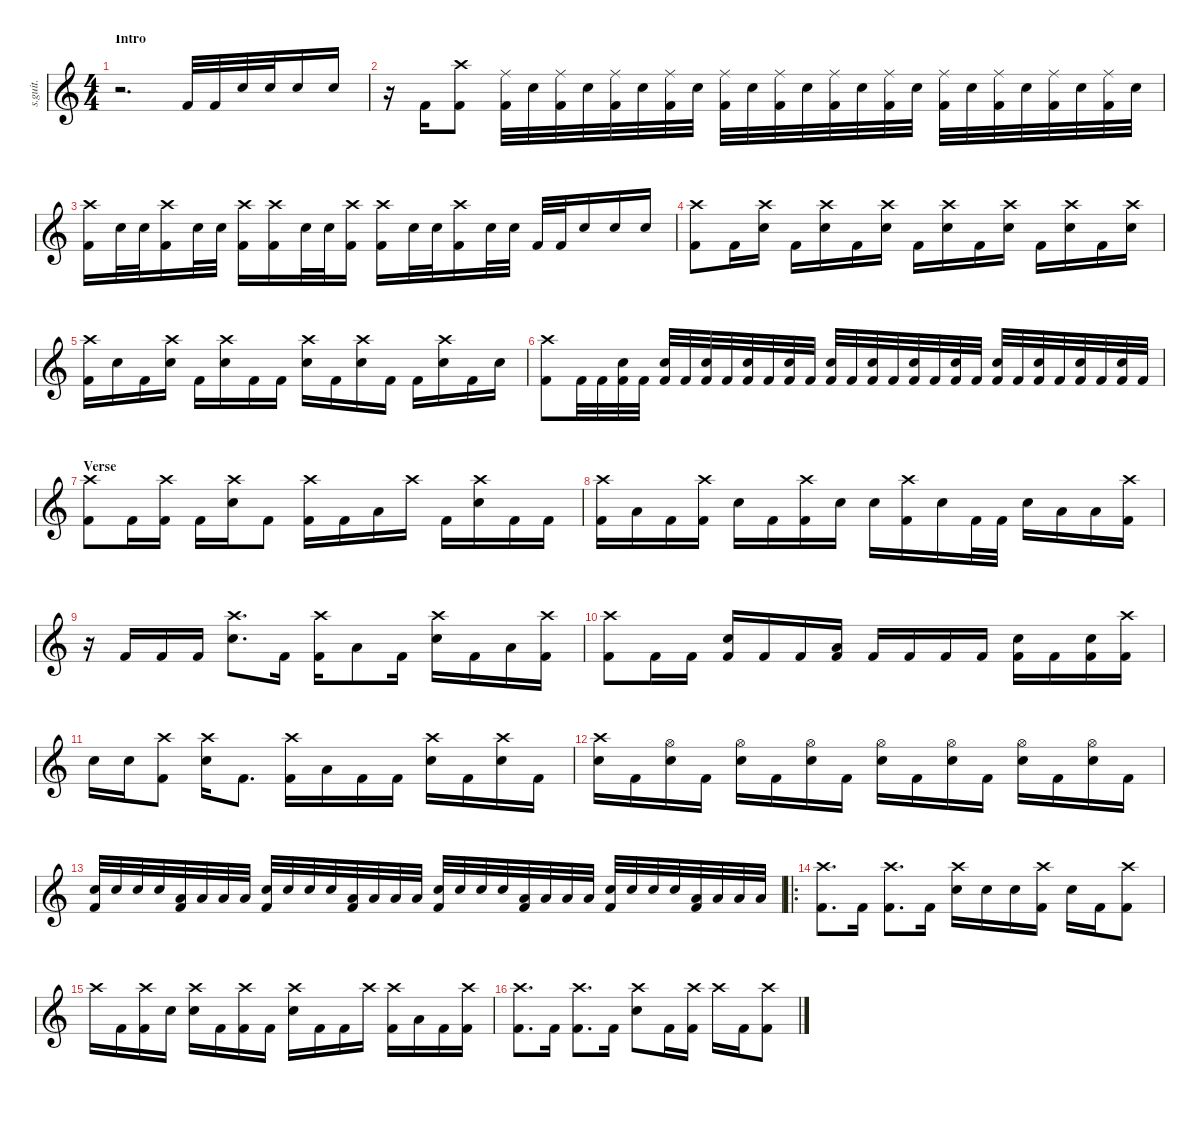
\defaultSystemsLayout 4
\hideDynamics
\bracketExtendMode nobrackets
\track ("" "s.guit.") {instrument percussion}
\staff {score}
\articulation defaults
\ts (4 4)
\beaming (8 2 2 2 2)
\section ("" "Intro")
\tempo (116 hide)
\clef g2
\ks c
r.2{d dy f} "Kick (hit) 2".32{lyrics (0 "") lyrics (1 "") lyrics (2 "") lyrics (3 "") lyrics (4 "")} "Kick (hit) 2".32{lyrics (0 "") lyrics (1 "") lyrics (2 "") lyrics (3 "") lyrics (4 "")} "Snare (hit) 2".32{lyrics (0 "") lyrics (1 "") lyrics (2 "") lyrics (3 "") lyrics (4 "")} "Snare (hit) 2".32{lyrics (0 "") lyrics (1 "") lyrics (2 "") lyrics (3 "") lyrics (4 "")} "Snare (hit) 2".16{lyrics (0 "") lyrics (1 "") lyrics (2 "") lyrics (3 "") lyrics (4 "")} "Snare (hit) 2".16{lyrics (0 "") lyrics (1 "") lyrics (2 "") lyrics (3 "") lyrics (4 "")} |
r.16 "Kick (hit) 2".16{lyrics (0 "") lyrics (1 "") lyrics (2 "") lyrics (3 "") lyrics (4 "")} ("Kick (hit) 2" "Crash high (hit)").8{lyrics (0 "") lyrics (1 "") lyrics (2 "") lyrics (3 "") lyrics (4 "")} ("Kick (hit) 2" "Ride (middle)").32{lyrics (0 "") lyrics (1 "") lyrics (2 "") lyrics (3 "") lyrics (4 "")} "Snare (hit) 2".32{lyrics (0 "") lyrics (1 "") lyrics (2 "") lyrics (3 "") lyrics (4 "")} ("Kick (hit) 2" "Ride (middle)").32{lyrics (0 "") lyrics (1 "") lyrics (2 "") lyrics (3 "") lyrics (4 "")} "Snare (hit) 2".32{lyrics (0 "") lyrics (1 "") lyrics (2 "") lyrics (3 "") lyrics (4 "")} ("Kick (hit) 2" "Ride (middle)").32{lyrics (0 "") lyrics (1 "") lyrics (2 "") lyrics (3 "") lyrics (4 "")} "Snare (hit) 2".32{lyrics (0 "") lyrics (1 "") lyrics (2 "") lyrics (3 "") lyrics (4 "")} ("Kick (hit) 2" "Ride (middle)").32{lyrics (0 "") lyrics (1 "") lyrics (2 "") lyrics (3 "") lyrics (4 "")} "Snare (hit) 2".32{lyrics (0 "") lyrics (1 "") lyrics (2 "") lyrics (3 "") lyrics (4 "")} ("Kick (hit) 2" "Ride (middle)").32{lyrics (0 "") lyrics (1 "") lyrics (2 "") lyrics (3 "") lyrics (4 "")} "Snare (hit) 2".32{lyrics (0 "") lyrics (1 "") lyrics (2 "") lyrics (3 "") lyrics (4 "")} ("Kick (hit) 2" "Ride (middle)").32{lyrics (0 "") lyrics (1 "") lyrics (2 "") lyrics (3 "") lyrics (4 "")} "Snare (hit) 2".32{lyrics (0 "") lyrics (1 "") lyrics (2 "") lyrics (3 "") lyrics (4 "")} ("Kick (hit) 2" "Ride (middle)").32{lyrics (0 "") lyrics (1 "") lyrics (2 "") lyrics (3 "") lyrics (4 "")} "Snare (hit) 2".32{lyrics (0 "") lyrics (1 "") lyrics (2 "") lyrics (3 "") lyrics (4 "")} ("Kick (hit) 2" "Ride (middle)").32{lyrics (0 "") lyrics (1 "") lyrics (2 "") lyrics (3 "") lyrics (4 "")} "Snare (hit) 2".32{lyrics (0 "") lyrics (1 "") lyrics (2 "") lyrics (3 "") lyrics (4 "")} ("Kick (hit) 2" "Ride (middle)").32{lyrics (0 "") lyrics (1 "") lyrics (2 "") lyrics (3 "") lyrics (4 "")} "Snare (hit) 2".32{lyrics (0 "") lyrics (1 "") lyrics (2 "") lyrics (3 "") lyrics (4 "")} ("Kick (hit) 2" "Ride (middle)").32{lyrics (0 "") lyrics (1 "") lyrics (2 "") lyrics (3 "") lyrics (4 "")} "Snare (hit) 2".32{lyrics (0 "") lyrics (1 "") lyrics (2 "") lyrics (3 "") lyrics (4 "")} ("Kick (hit) 2" "Ride (middle)").32{lyrics (0 "") lyrics (1 "") lyrics (2 "") lyrics (3 "") lyrics (4 "")} "Snare (hit) 2".32{lyrics (0 "") lyrics (1 "") lyrics (2 "") lyrics (3 "") lyrics (4 "")} ("Kick (hit) 2" "Ride (middle)").32{lyrics (0 "") lyrics (1 "") lyrics (2 "") lyrics (3 "") lyrics (4 "")} "Snare (hit) 2".32{lyrics (0 "") lyrics (1 "") lyrics (2 "") lyrics (3 "") lyrics (4 "")} |
("Kick (hit) 2" "Crash high (hit)").16{lyrics (0 "") lyrics (1 "") lyrics (2 "") lyrics (3 "") lyrics (4 "")} "Snare (hit) 2".32{lyrics (0 "") lyrics (1 "") lyrics (2 "") lyrics (3 "") lyrics (4 "")} "Snare (hit) 2".32{lyrics (0 "") lyrics (1 "") lyrics (2 "") lyrics (3 "") lyrics (4 "")} ("Kick (hit) 2" "Crash high (hit)").16{lyrics (0 "") lyrics (1 "") lyrics (2 "") lyrics (3 "") lyrics (4 "")} "Snare (hit) 2".32{lyrics (0 "") lyrics (1 "") lyrics (2 "") lyrics (3 "") lyrics (4 "")} "Snare (hit) 2".32{lyrics (0 "") lyrics (1 "") lyrics (2 "") lyrics (3 "") lyrics (4 "")} ("Kick (hit) 2" "Crash high (hit)").16{lyrics (0 "") lyrics (1 "") lyrics (2 "") lyrics (3 "") lyrics (4 "")} ("Kick (hit) 2" "Crash high (hit)").16{lyrics (0 "") lyrics (1 "") lyrics (2 "") lyrics (3 "") lyrics (4 "")} "Snare (hit) 2".32{lyrics (0 "") lyrics (1 "") lyrics (2 "") lyrics (3 "") lyrics (4 "")} "Snare (hit) 2".32{lyrics (0 "") lyrics (1 "") lyrics (2 "") lyrics (3 "") lyrics (4 "")} ("Kick (hit) 2" "Crash high (hit)").16{lyrics (0 "") lyrics (1 "") lyrics (2 "") lyrics (3 "") lyrics (4 "")} ("Kick (hit) 2" "Crash high (hit)").16{lyrics (0 "") lyrics (1 "") lyrics (2 "") lyrics (3 "") lyrics (4 "")} "Snare (hit) 2".32{lyrics (0 "") lyrics (1 "") lyrics (2 "") lyrics (3 "") lyrics (4 "")} "Snare (hit) 2".32{lyrics (0 "") lyrics (1 "") lyrics (2 "") lyrics (3 "") lyrics (4 "")} ("Kick (hit) 2" "Crash high (hit)").16{lyrics (0 "") lyrics (1 "") lyrics (2 "") lyrics (3 "") lyrics (4 "")} "Snare (hit) 2".32{lyrics (0 "") lyrics (1 "") lyrics (2 "") lyrics (3 "") lyrics (4 "")} "Snare (hit) 2".32{lyrics (0 "") lyrics (1 "") lyrics (2 "") lyrics (3 "") lyrics (4 "")} "Kick (hit) 2".32{lyrics (0 "") lyrics (1 "") lyrics (2 "") lyrics (3 "") lyrics (4 "")} "Kick (hit) 2".32{lyrics (0 "") lyrics (1 "") lyrics (2 "") lyrics (3 "") lyrics (4 "")} "Snare (hit) 2".16{lyrics (0 "") lyrics (1 "") lyrics (2 "") lyrics (3 "") lyrics (4 "")} "Snare (hit) 2".16{lyrics (0 "") lyrics (1 "") lyrics (2 "") lyrics (3 "") lyrics (4 "")} "Snare (hit) 2".16{lyrics (0 "") lyrics (1 "") lyrics (2 "") lyrics (3 "") lyrics (4 "")} |
("Kick (hit) 2" "Crash high (hit)").8{lyrics (0 "") lyrics (1 "") lyrics (2 "") lyrics (3 "") lyrics (4 "")} "Kick (hit) 2".16{lyrics (0 "") lyrics (1 "") lyrics (2 "") lyrics (3 "") lyrics (4 "")} ("Snare (hit) 2" "Crash high (hit)").16{lyrics (0 "") lyrics (1 "") lyrics (2 "") lyrics (3 "") lyrics (4 "")} "Kick (hit) 2".16{lyrics (0 "") lyrics (1 "") lyrics (2 "") lyrics (3 "") lyrics (4 "")} ("Snare (hit) 2" "Crash high (hit)").16{lyrics (0 "") lyrics (1 "") lyrics (2 "") lyrics (3 "") lyrics (4 "")} "Kick (hit) 2".16{lyrics (0 "") lyrics (1 "") lyrics (2 "") lyrics (3 "") lyrics (4 "")} ("Snare (hit) 2" "Crash high (hit)").16{lyrics (0 "") lyrics (1 "") lyrics (2 "") lyrics (3 "") lyrics (4 "")} "Kick (hit) 2".16{lyrics (0 "") lyrics (1 "") lyrics (2 "") lyrics (3 "") lyrics (4 "")} ("Snare (hit) 2" "Crash high (hit)").16{lyrics (0 "") lyrics (1 "") lyrics (2 "") lyrics (3 "") lyrics (4 "")} "Kick (hit) 2".16{lyrics (0 "") lyrics (1 "") lyrics (2 "") lyrics (3 "") lyrics (4 "")} ("Snare (hit) 2" "Crash high (hit)").16{lyrics (0 "") lyrics (1 "") lyrics (2 "") lyrics (3 "") lyrics (4 "")} "Kick (hit) 2".16{lyrics (0 "") lyrics (1 "") lyrics (2 "") lyrics (3 "") lyrics (4 "")} ("Snare (hit) 2" "Crash high (hit)").16{lyrics (0 "") lyrics (1 "") lyrics (2 "") lyrics (3 "") lyrics (4 "")} "Kick (hit) 2".16{lyrics (0 "") lyrics (1 "") lyrics (2 "") lyrics (3 "") lyrics (4 "")} ("Snare (hit) 2" "Crash high (hit)").16{lyrics (0 "") lyrics (1 "") lyrics (2 "") lyrics (3 "") lyrics (4 "")} |
("Kick (hit) 2" "Crash high (hit)").16{lyrics (0 "") lyrics (1 "") lyrics (2 "") lyrics (3 "") lyrics (4 "")} "Snare (hit) 2".16{lyrics (0 "") lyrics (1 "") lyrics (2 "") lyrics (3 "") lyrics (4 "")} "Kick (hit) 2".16{lyrics (0 "") lyrics (1 "") lyrics (2 "") lyrics (3 "") lyrics (4 "")} ("Snare (hit) 2" "Crash high (hit)").16{lyrics (0 "") lyrics (1 "") lyrics (2 "") lyrics (3 "") lyrics (4 "")} "Kick (hit) 2".16{lyrics (0 "") lyrics (1 "") lyrics (2 "") lyrics (3 "") lyrics (4 "")} ("Snare (hit) 2" "Crash high (hit)").16{lyrics (0 "") lyrics (1 "") lyrics (2 "") lyrics (3 "") lyrics (4 "")} "Kick (hit) 2".16{lyrics (0 "") lyrics (1 "") lyrics (2 "") lyrics (3 "") lyrics (4 "")} "Kick (hit) 2".16{lyrics (0 "") lyrics (1 "") lyrics (2 "") lyrics (3 "") lyrics (4 "")} ("Snare (hit) 2" "Crash high (hit)").16{lyrics (0 "") lyrics (1 "") lyrics (2 "") lyrics (3 "") lyrics (4 "")} "Kick (hit) 2".16{lyrics (0 "") lyrics (1 "") lyrics (2 "") lyrics (3 "") lyrics (4 "")} ("Snare (hit) 2" "Crash high (hit)").16{lyrics (0 "") lyrics (1 "") lyrics (2 "") lyrics (3 "") lyrics (4 "")} "Kick (hit) 2".16{lyrics (0 "") lyrics (1 "") lyrics (2 "") lyrics (3 "") lyrics (4 "")} "Kick (hit) 2".16{lyrics (0 "") lyrics (1 "") lyrics (2 "") lyrics (3 "") lyrics (4 "")} ("Snare (hit) 2" "Crash high (hit)").16{lyrics (0 "") lyrics (1 "") lyrics (2 "") lyrics (3 "") lyrics (4 "")} "Kick (hit) 2".16{lyrics (0 "") lyrics (1 "") lyrics (2 "") lyrics (3 "") lyrics (4 "")} "Snare (hit) 2".16{lyrics (0 "") lyrics (1 "") lyrics (2 "") lyrics (3 "") lyrics (4 "")} |
("Kick (hit) 2" "Crash high (hit)").8{lyrics (0 "") lyrics (1 "") lyrics (2 "") lyrics (3 "") lyrics (4 "")} "Kick (hit) 2".32{lyrics (0 "") lyrics (1 "") lyrics (2 "") lyrics (3 "") lyrics (4 "")} "Kick (hit) 2".32{lyrics (0 "") lyrics (1 "") lyrics (2 "") lyrics (3 "") lyrics (4 "")} ("Kick (hit) 2" "Snare (hit) 2").32{lyrics (0 "") lyrics (1 "") lyrics (2 "") lyrics (3 "") lyrics (4 "")} "Kick (hit) 2".32{lyrics (0 "") lyrics (1 "") lyrics (2 "") lyrics (3 "") lyrics (4 "")} ("Kick (hit) 2" "Snare (hit) 2").32{lyrics (0 "") lyrics (1 "") lyrics (2 "") lyrics (3 "") lyrics (4 "")} "Kick (hit) 2".32{lyrics (0 "") lyrics (1 "") lyrics (2 "") lyrics (3 "") lyrics (4 "")} ("Kick (hit) 2" "Snare (hit) 2").32{lyrics (0 "") lyrics (1 "") lyrics (2 "") lyrics (3 "") lyrics (4 "")} "Kick (hit) 2".32{lyrics (0 "") lyrics (1 "") lyrics (2 "") lyrics (3 "") lyrics (4 "")} ("Kick (hit) 2" "Snare (hit) 2").32{lyrics (0 "") lyrics (1 "") lyrics (2 "") lyrics (3 "") lyrics (4 "")} "Kick (hit) 2".32{lyrics (0 "") lyrics (1 "") lyrics (2 "") lyrics (3 "") lyrics (4 "")} ("Kick (hit) 2" "Snare (hit) 2").32{lyrics (0 "") lyrics (1 "") lyrics (2 "") lyrics (3 "") lyrics (4 "")} "Kick (hit) 2".32{lyrics (0 "") lyrics (1 "") lyrics (2 "") lyrics (3 "") lyrics (4 "")} ("Kick (hit) 2" "Snare (hit) 2").32{lyrics (0 "") lyrics (1 "") lyrics (2 "") lyrics (3 "") lyrics (4 "")} "Kick (hit) 2".32{lyrics (0 "") lyrics (1 "") lyrics (2 "") lyrics (3 "") lyrics (4 "")} ("Kick (hit) 2" "Snare (hit) 2").32{lyrics (0 "") lyrics (1 "") lyrics (2 "") lyrics (3 "") lyrics (4 "")} "Kick (hit) 2".32{lyrics (0 "") lyrics (1 "") lyrics (2 "") lyrics (3 "") lyrics (4 "")} ("Kick (hit) 2" "Snare (hit) 2").32{lyrics (0 "") lyrics (1 "") lyrics (2 "") lyrics (3 "") lyrics (4 "")} "Kick (hit) 2".32{lyrics (0 "") lyrics (1 "") lyrics (2 "") lyrics (3 "") lyrics (4 "")} ("Kick (hit) 2" "Snare (hit) 2").32{lyrics (0 "") lyrics (1 "") lyrics (2 "") lyrics (3 "") lyrics (4 "")} "Kick (hit) 2".32{lyrics (0 "") lyrics (1 "") lyrics (2 "") lyrics (3 "") lyrics (4 "")} ("Kick (hit) 2" "Snare (hit) 2").32{lyrics (0 "") lyrics (1 "") lyrics (2 "") lyrics (3 "") lyrics (4 "")} "Kick (hit) 2".32{lyrics (0 "") lyrics (1 "") lyrics (2 "") lyrics (3 "") lyrics (4 "")} ("Kick (hit) 2" "Snare (hit) 2").32{lyrics (0 "") lyrics (1 "") lyrics (2 "") lyrics (3 "") lyrics (4 "")} "Kick (hit) 2".32{lyrics (0 "") lyrics (1 "") lyrics (2 "") lyrics (3 "") lyrics (4 "")} ("Kick (hit) 2" "Snare (hit) 2").32{lyrics (0 "") lyrics (1 "") lyrics (2 "") lyrics (3 "") lyrics (4 "")} "Kick (hit) 2".32{lyrics (0 "") lyrics (1 "") lyrics (2 "") lyrics (3 "") lyrics (4 "")} ("Kick (hit) 2" "Snare (hit) 2").32{lyrics (0 "") lyrics (1 "") lyrics (2 "") lyrics (3 "") lyrics (4 "")} "Kick (hit) 2".32{lyrics (0 "") lyrics (1 "") lyrics (2 "") lyrics (3 "") lyrics (4 "")} |
\section ("" "Verse")
("Kick (hit) 2" "Crash high (hit)").8{lyrics (0 "") lyrics (1 "") lyrics (2 "") lyrics (3 "") lyrics (4 "")} "Kick (hit) 2".16{lyrics (0 "") lyrics (1 "") lyrics (2 "") lyrics (3 "") lyrics (4 "")} ("Kick (hit) 2" "Crash high (hit)").16{lyrics (0 "") lyrics (1 "") lyrics (2 "") lyrics (3 "") lyrics (4 "")} "Kick (hit) 2".16{lyrics (0 "") lyrics (1 "") lyrics (2 "") lyrics (3 "") lyrics (4 "")} ("Snare (hit) 2" "Crash high (hit)").16{lyrics (0 "") lyrics (1 "") lyrics (2 "") lyrics (3 "") lyrics (4 "")} "Kick (hit) 2".8{lyrics (0 "") lyrics (1 "") lyrics (2 "") lyrics (3 "") lyrics (4 "")} ("Kick (hit) 2" "Crash high (hit)").16{lyrics (0 "") lyrics (1 "") lyrics (2 "") lyrics (3 "") lyrics (4 "")} "Kick (hit) 2".16{lyrics (0 "") lyrics (1 "") lyrics (2 "") lyrics (3 "") lyrics (4 "")} "Low Tom (hit)".16{lyrics (0 "") lyrics (1 "") lyrics (2 "") lyrics (3 "") lyrics (4 "")} "Crash high (hit)".16{lyrics (0 "") lyrics (1 "") lyrics (2 "") lyrics (3 "") lyrics (4 "")} "Kick (hit) 2".16{lyrics (0 "") lyrics (1 "") lyrics (2 "") lyrics (3 "") lyrics (4 "")} ("Snare (hit) 2" "Crash high (hit)").16{lyrics (0 "") lyrics (1 "") lyrics (2 "") lyrics (3 "") lyrics (4 "")} "Kick (hit) 2".16{lyrics (0 "") lyrics (1 "") lyrics (2 "") lyrics (3 "") lyrics (4 "")} "Kick (hit) 2".16{lyrics (0 "") lyrics (1 "") lyrics (2 "") lyrics (3 "") lyrics (4 "")} |
("Kick (hit) 2" "Crash high (hit)").16{lyrics (0 "") lyrics (1 "") lyrics (2 "") lyrics (3 "") lyrics (4 "")} "Low Floor Tom (hit)".16{lyrics (0 "") lyrics (1 "") lyrics (2 "") lyrics (3 "") lyrics (4 "")} "Kick (hit) 2".16{lyrics (0 "") lyrics (1 "") lyrics (2 "") lyrics (3 "") lyrics (4 "")} ("Kick (hit) 2" "Crash high (hit)").16{lyrics (0 "") lyrics (1 "") lyrics (2 "") lyrics (3 "") lyrics (4 "")} "Snare (hit) 2".16{lyrics (0 "") lyrics (1 "") lyrics (2 "") lyrics (3 "") lyrics (4 "")} "Kick (hit) 2".16{lyrics (0 "") lyrics (1 "") lyrics (2 "") lyrics (3 "") lyrics (4 "")} ("Kick (hit) 2" "Crash high (hit)").16{lyrics (0 "") lyrics (1 "") lyrics (2 "") lyrics (3 "") lyrics (4 "")} "Snare (hit) 2".16{lyrics (0 "") lyrics (1 "") lyrics (2 "") lyrics (3 "") lyrics (4 "")} "Snare (hit) 2".16{lyrics (0 "") lyrics (1 "") lyrics (2 "") lyrics (3 "") lyrics (4 "")} ("Kick (hit) 2" "Crash high (hit)").16{lyrics (0 "") lyrics (1 "") lyrics (2 "") lyrics (3 "") lyrics (4 "")} "Snare (hit) 2".16{lyrics (0 "") lyrics (1 "") lyrics (2 "") lyrics (3 "") lyrics (4 "")} "Kick (hit) 2".32{lyrics (0 "") lyrics (1 "") lyrics (2 "") lyrics (3 "") lyrics (4 "")} "Kick (hit) 2".32{lyrics (0 "") lyrics (1 "") lyrics (2 "") lyrics (3 "") lyrics (4 "")} "Snare (hit) 2".16{lyrics (0 "") lyrics (1 "") lyrics (2 "") lyrics (3 "") lyrics (4 "")} "Low Tom (hit)".16{lyrics (0 "") lyrics (1 "") lyrics (2 "") lyrics (3 "") lyrics (4 "")} "Low Floor Tom (hit)".16{lyrics (0 "") lyrics (1 "") lyrics (2 "") lyrics (3 "") lyrics (4 "")} ("Kick (hit) 2" "Crash high (hit)").16{lyrics (0 "") lyrics (1 "") lyrics (2 "") lyrics (3 "") lyrics (4 "")} |
r.16 "Kick (hit) 2".16{lyrics (0 "") lyrics (1 "") lyrics (2 "") lyrics (3 "") lyrics (4 "")} "Kick (hit) 2".16{lyrics (0 "") lyrics (1 "") lyrics (2 "") lyrics (3 "") lyrics (4 "")} "Kick (hit) 2".16{lyrics (0 "") lyrics (1 "") lyrics (2 "") lyrics (3 "") lyrics (4 "")} ("Snare (hit) 2" "Crash high (hit)").8{d lyrics (0 "") lyrics (1 "") lyrics (2 "") lyrics (3 "") lyrics (4 "")} "Kick (hit) 2".16{lyrics (0 "") lyrics (1 "") lyrics (2 "") lyrics (3 "") lyrics (4 "")} ("Kick (hit) 2" "Crash high (hit)").16{lyrics (0 "") lyrics (1 "") lyrics (2 "") lyrics (3 "") lyrics (4 "")} "Low Floor Tom (hit)".8{lyrics (0 "") lyrics (1 "") lyrics (2 "") lyrics (3 "") lyrics (4 "")} "Kick (hit) 2".16{lyrics (0 "") lyrics (1 "") lyrics (2 "") lyrics (3 "") lyrics (4 "")} ("Snare (hit) 2" "Crash high (hit)").16{lyrics (0 "") lyrics (1 "") lyrics (2 "") lyrics (3 "") lyrics (4 "")} "Kick (hit) 2".16{lyrics (0 "") lyrics (1 "") lyrics (2 "") lyrics (3 "") lyrics (4 "")} "Low Floor Tom (hit)".16{lyrics (0 "") lyrics (1 "") lyrics (2 "") lyrics (3 "") lyrics (4 "")} ("Kick (hit) 2" "Crash high (hit)").16{lyrics (0 "") lyrics (1 "") lyrics (2 "") lyrics (3 "") lyrics (4 "")} |
("Kick (hit) 2" "Crash high (hit)").8{lyrics (0 "") lyrics (1 "") lyrics (2 "") lyrics (3 "") lyrics (4 "")} "Kick (hit) 2".16{lyrics (0 "") lyrics (1 "") lyrics (2 "") lyrics (3 "") lyrics (4 "")} "Kick (hit) 2".16{lyrics (0 "") lyrics (1 "") lyrics (2 "") lyrics (3 "") lyrics (4 "")} ("Kick (hit) 2" "Snare (hit) 2").16{lyrics (0 "") lyrics (1 "") lyrics (2 "") lyrics (3 "") lyrics (4 "")} "Kick (hit) 2".16{lyrics (0 "") lyrics (1 "") lyrics (2 "") lyrics (3 "") lyrics (4 "")} "Kick (hit) 2".16{lyrics (0 "") lyrics (1 "") lyrics (2 "") lyrics (3 "") lyrics (4 "")} ("Kick (hit) 2" "Low Tom (hit)").16{lyrics (0 "") lyrics (1 "") lyrics (2 "") lyrics (3 "") lyrics (4 "")} "Kick (hit) 2".16{lyrics (0 "") lyrics (1 "") lyrics (2 "") lyrics (3 "") lyrics (4 "")} "Kick (hit) 2".16{lyrics (0 "") lyrics (1 "") lyrics (2 "") lyrics (3 "") lyrics (4 "")} "Kick (hit) 2".16{lyrics (0 "") lyrics (1 "") lyrics (2 "") lyrics (3 "") lyrics (4 "")} "Kick (hit) 2".16{lyrics (0 "") lyrics (1 "") lyrics (2 "") lyrics (3 "") lyrics (4 "")} ("Kick (hit) 2" "Snare (hit) 2").16{lyrics (0 "") lyrics (1 "") lyrics (2 "") lyrics (3 "") lyrics (4 "")} "Kick (hit) 2".16{lyrics (0 "") lyrics (1 "") lyrics (2 "") lyrics (3 "") lyrics (4 "")} ("Kick (hit) 2" "Snare (hit) 2").16{lyrics (0 "") lyrics (1 "") lyrics (2 "") lyrics (3 "") lyrics (4 "")} ("Kick (hit) 2" "Crash high (hit)").16{lyrics (0 "") lyrics (1 "") lyrics (2 "") lyrics (3 "") lyrics (4 "")} |
"Snare (hit) 2".16{lyrics (0 "") lyrics (1 "") lyrics (2 "") lyrics (3 "") lyrics (4 "")} "Snare (hit) 2".16{lyrics (0 "") lyrics (1 "") lyrics (2 "") lyrics (3 "") lyrics (4 "")} ("Kick (hit) 2" "Crash high (hit)").8{lyrics (0 "") lyrics (1 "") lyrics (2 "") lyrics (3 "") lyrics (4 "")} ("Snare (hit) 2" "Crash high (hit)").16{lyrics (0 "") lyrics (1 "") lyrics (2 "") lyrics (3 "") lyrics (4 "")} "Kick (hit) 2".8{d lyrics (0 "") lyrics (1 "") lyrics (2 "") lyrics (3 "") lyrics (4 "")} ("Kick (hit) 2" "Crash high (hit)").16{lyrics (0 "") lyrics (1 "") lyrics (2 "") lyrics (3 "") lyrics (4 "")} "Low Tom (hit)".16{lyrics (0 "") lyrics (1 "") lyrics (2 "") lyrics (3 "") lyrics (4 "")} "Kick (hit) 2".16{lyrics (0 "") lyrics (1 "") lyrics (2 "") lyrics (3 "") lyrics (4 "")} "Kick (hit) 2".16{lyrics (0 "") lyrics (1 "") lyrics (2 "") lyrics (3 "") lyrics (4 "")} ("Snare (hit) 2" "Crash high (hit)").16{lyrics (0 "") lyrics (1 "") lyrics (2 "") lyrics (3 "") lyrics (4 "")} "Kick (hit) 2".16{lyrics (0 "") lyrics (1 "") lyrics (2 "") lyrics (3 "") lyrics (4 "")} ("Snare (hit) 2" "Crash high (hit)").16{lyrics (0 "") lyrics (1 "") lyrics (2 "") lyrics (3 "") lyrics (4 "")} "Kick (hit) 2".16{lyrics (0 "") lyrics (1 "") lyrics (2 "") lyrics (3 "") lyrics (4 "")} |
("Snare (hit) 2" "Crash high (hit)").16{lyrics (0 "") lyrics (1 "") lyrics (2 "") lyrics (3 "") lyrics (4 "")} "Kick (hit) 2".16{lyrics (0 "") lyrics (1 "") lyrics (2 "") lyrics (3 "") lyrics (4 "")} ("Snare (hit) 2" "Hi-Hat (open)").16{lyrics (0 "") lyrics (1 "") lyrics (2 "") lyrics (3 "") lyrics (4 "")} "Kick (hit) 2".16{lyrics (0 "") lyrics (1 "") lyrics (2 "") lyrics (3 "") lyrics (4 "")} ("Snare (hit) 2" "Hi-Hat (open)").16{lyrics (0 "") lyrics (1 "") lyrics (2 "") lyrics (3 "") lyrics (4 "")} "Kick (hit) 2".16{lyrics (0 "") lyrics (1 "") lyrics (2 "") lyrics (3 "") lyrics (4 "")} ("Snare (hit) 2" "Hi-Hat (open)").16{lyrics (0 "") lyrics (1 "") lyrics (2 "") lyrics (3 "") lyrics (4 "")} "Kick (hit) 2".16{lyrics (0 "") lyrics (1 "") lyrics (2 "") lyrics (3 "") lyrics (4 "")} ("Snare (hit) 2" "Hi-Hat (open)").16{lyrics (0 "") lyrics (1 "") lyrics (2 "") lyrics (3 "") lyrics (4 "")} "Kick (hit) 2".16{lyrics (0 "") lyrics (1 "") lyrics (2 "") lyrics (3 "") lyrics (4 "")} ("Snare (hit) 2" "Hi-Hat (open)").16{lyrics (0 "") lyrics (1 "") lyrics (2 "") lyrics (3 "") lyrics (4 "")} "Kick (hit) 2".16{lyrics (0 "") lyrics (1 "") lyrics (2 "") lyrics (3 "") lyrics (4 "")} ("Snare (hit) 2" "Hi-Hat (open)").16{lyrics (0 "") lyrics (1 "") lyrics (2 "") lyrics (3 "") lyrics (4 "")} "Kick (hit) 2".16{lyrics (0 "") lyrics (1 "") lyrics (2 "") lyrics (3 "") lyrics (4 "")} ("Snare (hit) 2" "Hi-Hat (open)").16{lyrics (0 "") lyrics (1 "") lyrics (2 "") lyrics (3 "") lyrics (4 "")} "Kick (hit) 2".16{lyrics (0 "") lyrics (1 "") lyrics (2 "") lyrics (3 "") lyrics (4 "")} |
("Kick (hit) 2" "Snare (hit) 2").32{lyrics (0 "") lyrics (1 "") lyrics (2 "") lyrics (3 "") lyrics (4 "")} "Snare (hit) 2".32{lyrics (0 "") lyrics (1 "") lyrics (2 "") lyrics (3 "") lyrics (4 "")} "Snare (hit) 2".32{lyrics (0 "") lyrics (1 "") lyrics (2 "") lyrics (3 "") lyrics (4 "")} "Snare (hit) 2".32{lyrics (0 "") lyrics (1 "") lyrics (2 "") lyrics (3 "") lyrics (4 "")} ("Kick (hit) 2" "Low Tom (hit)").32{lyrics (0 "") lyrics (1 "") lyrics (2 "") lyrics (3 "") lyrics (4 "")} "Low Tom (hit)".32{lyrics (0 "") lyrics (1 "") lyrics (2 "") lyrics (3 "") lyrics (4 "")} "Low Tom (hit)".32{lyrics (0 "") lyrics (1 "") lyrics (2 "") lyrics (3 "") lyrics (4 "")} "Low Tom (hit)".32{lyrics (0 "") lyrics (1 "") lyrics (2 "") lyrics (3 "") lyrics (4 "")} ("Kick (hit) 2" "Snare (hit) 2").32{lyrics (0 "") lyrics (1 "") lyrics (2 "") lyrics (3 "") lyrics (4 "")} "Snare (hit) 2".32{lyrics (0 "") lyrics (1 "") lyrics (2 "") lyrics (3 "") lyrics (4 "")} "Snare (hit) 2".32{lyrics (0 "") lyrics (1 "") lyrics (2 "") lyrics (3 "") lyrics (4 "")} "Snare (hit) 2".32{lyrics (0 "") lyrics (1 "") lyrics (2 "") lyrics (3 "") lyrics (4 "")} ("Kick (hit) 2" "Low Tom (hit)").32{lyrics (0 "") lyrics (1 "") lyrics (2 "") lyrics (3 "") lyrics (4 "")} "Low Tom (hit)".32{lyrics (0 "") lyrics (1 "") lyrics (2 "") lyrics (3 "") lyrics (4 "")} "Low Tom (hit)".32{lyrics (0 "") lyrics (1 "") lyrics (2 "") lyrics (3 "") lyrics (4 "")} "Low Tom (hit)".32{lyrics (0 "") lyrics (1 "") lyrics (2 "") lyrics (3 "") lyrics (4 "")} ("Kick (hit) 2" "Snare (hit) 2").32{lyrics (0 "") lyrics (1 "") lyrics (2 "") lyrics (3 "") lyrics (4 "")} "Snare (hit) 2".32{lyrics (0 "") lyrics (1 "") lyrics (2 "") lyrics (3 "") lyrics (4 "")} "Snare (hit) 2".32{lyrics (0 "") lyrics (1 "") lyrics (2 "") lyrics (3 "") lyrics (4 "")} "Snare (hit) 2".32{lyrics (0 "") lyrics (1 "") lyrics (2 "") lyrics (3 "") lyrics (4 "")} ("Kick (hit) 2" "Low Tom (hit)").32{lyrics (0 "") lyrics (1 "") lyrics (2 "") lyrics (3 "") lyrics (4 "")} "Low Tom (hit)".32{lyrics (0 "") lyrics (1 "") lyrics (2 "") lyrics (3 "") lyrics (4 "")} "Low Tom (hit)".32{lyrics (0 "") lyrics (1 "") lyrics (2 "") lyrics (3 "") lyrics (4 "")} "Low Tom (hit)".32{lyrics (0 "") lyrics (1 "") lyrics (2 "") lyrics (3 "") lyrics (4 "")} ("Kick (hit) 2" "Snare (hit) 2").32{lyrics (0 "") lyrics (1 "") lyrics (2 "") lyrics (3 "") lyrics (4 "")} "Snare (hit) 2".32{lyrics (0 "") lyrics (1 "") lyrics (2 "") lyrics (3 "") lyrics (4 "")} "Snare (hit) 2".32{lyrics (0 "") lyrics (1 "") lyrics (2 "") lyrics (3 "") lyrics (4 "")} "Snare (hit) 2".32{lyrics (0 "") lyrics (1 "") lyrics (2 "") lyrics (3 "") lyrics (4 "")} ("Kick (hit) 2" "Low Tom (hit)").32{lyrics (0 "") lyrics (1 "") lyrics (2 "") lyrics (3 "") lyrics (4 "")} "Low Tom (hit)".32{lyrics (0 "") lyrics (1 "") lyrics (2 "") lyrics (3 "") lyrics (4 "")} "Low Tom (hit)".32{lyrics (0 "") lyrics (1 "") lyrics (2 "") lyrics (3 "") lyrics (4 "")} "Low Tom (hit)".32{lyrics (0 "") lyrics (1 "") lyrics (2 "") lyrics (3 "") lyrics (4 "")} |
\ro
("Kick (hit) 2" "Crash high (hit)").8{d lyrics (0 "") lyrics (1 "") lyrics (2 "") lyrics (3 "") lyrics (4 "")} "Kick (hit) 2".16{lyrics (0 "") lyrics (1 "") lyrics (2 "") lyrics (3 "") lyrics (4 "")} ("Kick (hit) 2" "Crash high (hit)").8{d lyrics (0 "") lyrics (1 "") lyrics (2 "") lyrics (3 "") lyrics (4 "")} "Kick (hit) 2".16{lyrics (0 "") lyrics (1 "") lyrics (2 "") lyrics (3 "") lyrics (4 "")} ("Snare (hit) 2" "Crash high (hit)").16{lyrics (0 "") lyrics (1 "") lyrics (2 "") lyrics (3 "") lyrics (4 "")} "Snare (hit) 2".16{lyrics (0 "") lyrics (1 "") lyrics (2 "") lyrics (3 "") lyrics (4 "")} "Snare (hit) 2".16{lyrics (0 "") lyrics (1 "") lyrics (2 "") lyrics (3 "") lyrics (4 "")} ("Kick (hit) 2" "Crash high (hit)").16{lyrics (0 "") lyrics (1 "") lyrics (2 "") lyrics (3 "") lyrics (4 "")} "Snare (hit) 2".16{lyrics (0 "") lyrics (1 "") lyrics (2 "") lyrics (3 "") lyrics (4 "")} "Kick (hit) 2".16{lyrics (0 "") lyrics (1 "") lyrics (2 "") lyrics (3 "") lyrics (4 "")} ("Kick (hit) 2" "Crash high (hit)").8{lyrics (0 "") lyrics (1 "") lyrics (2 "") lyrics (3 "") lyrics (4 "")} |
"Crash high (hit)".16{lyrics (0 "") lyrics (1 "") lyrics (2 "") lyrics (3 "") lyrics (4 "")} "Kick (hit) 2".16{lyrics (0 "") lyrics (1 "") lyrics (2 "") lyrics (3 "") lyrics (4 "")} ("Kick (hit) 2" "Crash high (hit)").16{lyrics (0 "") lyrics (1 "") lyrics (2 "") lyrics (3 "") lyrics (4 "")} "Snare (hit) 2".16{lyrics (0 "") lyrics (1 "") lyrics (2 "") lyrics (3 "") lyrics (4 "")} ("Snare (hit) 2" "Crash high (hit)").16{lyrics (0 "") lyrics (1 "") lyrics (2 "") lyrics (3 "") lyrics (4 "")} "Kick (hit) 2".16{lyrics (0 "") lyrics (1 "") lyrics (2 "") lyrics (3 "") lyrics (4 "")} ("Kick (hit) 2" "Crash high (hit)").16{lyrics (0 "") lyrics (1 "") lyrics (2 "") lyrics (3 "") lyrics (4 "")} "Kick (hit) 2".16{lyrics (0 "") lyrics (1 "") lyrics (2 "") lyrics (3 "") lyrics (4 "")} ("Snare (hit) 2" "Crash high (hit)").16{lyrics (0 "") lyrics (1 "") lyrics (2 "") lyrics (3 "") lyrics (4 "")} "Kick (hit) 2".16{lyrics (0 "") lyrics (1 "") lyrics (2 "") lyrics (3 "") lyrics (4 "")} "Kick (hit) 2".16{lyrics (0 "") lyrics (1 "") lyrics (2 "") lyrics (3 "") lyrics (4 "")} "Crash high (hit)".16{lyrics (0 "") lyrics (1 "") lyrics (2 "") lyrics (3 "") lyrics (4 "")} ("Kick (hit) 2" "Crash high (hit)").16{lyrics (0 "") lyrics (1 "") lyrics (2 "") lyrics (3 "") lyrics (4 "")} "Low Floor Tom (hit)".16{lyrics (0 "") lyrics (1 "") lyrics (2 "") lyrics (3 "") lyrics (4 "")} "Kick (hit) 2".16{lyrics (0 "") lyrics (1 "") lyrics (2 "") lyrics (3 "") lyrics (4 "")} ("Kick (hit) 2" "Crash high (hit)").16{lyrics (0 "") lyrics (1 "") lyrics (2 "") lyrics (3 "") lyrics (4 "")} |
("Kick (hit) 2" "Crash high (hit)").8{d lyrics (0 "") lyrics (1 "") lyrics (2 "") lyrics (3 "") lyrics (4 "")} "Kick (hit) 2".16{lyrics (0 "") lyrics (1 "") lyrics (2 "") lyrics (3 "") lyrics (4 "")} ("Kick (hit) 2" "Crash high (hit)").8{d lyrics (0 "") lyrics (1 "") lyrics (2 "") lyrics (3 "") lyrics (4 "")} "Kick (hit) 2".16{lyrics (0 "") lyrics (1 "") lyrics (2 "") lyrics (3 "") lyrics (4 "")} ("Snare (hit) 2" "Crash high (hit)").8{lyrics (0 "") lyrics (1 "") lyrics (2 "") lyrics (3 "") lyrics (4 "")} "Kick (hit) 2".16{lyrics (0 "") lyrics (1 "") lyrics (2 "") lyrics (3 "") lyrics (4 "")} ("Kick (hit) 2" "Crash high (hit)").16{lyrics (0 "") lyrics (1 "") lyrics (2 "") lyrics (3 "") lyrics (4 "")} "Crash high (hit)".16{lyrics (0 "") lyrics (1 "") lyrics (2 "") lyrics (3 "") lyrics (4 "")} "Kick (hit) 2".16{lyrics (0 "") lyrics (1 "") lyrics (2 "") lyrics (3 "") lyrics (4 "")} ("Kick (hit) 2" "Crash high (hit)").8{lyrics (0 "") lyrics (1 "") lyrics (2 "") lyrics (3 "") lyrics (4 "")}
